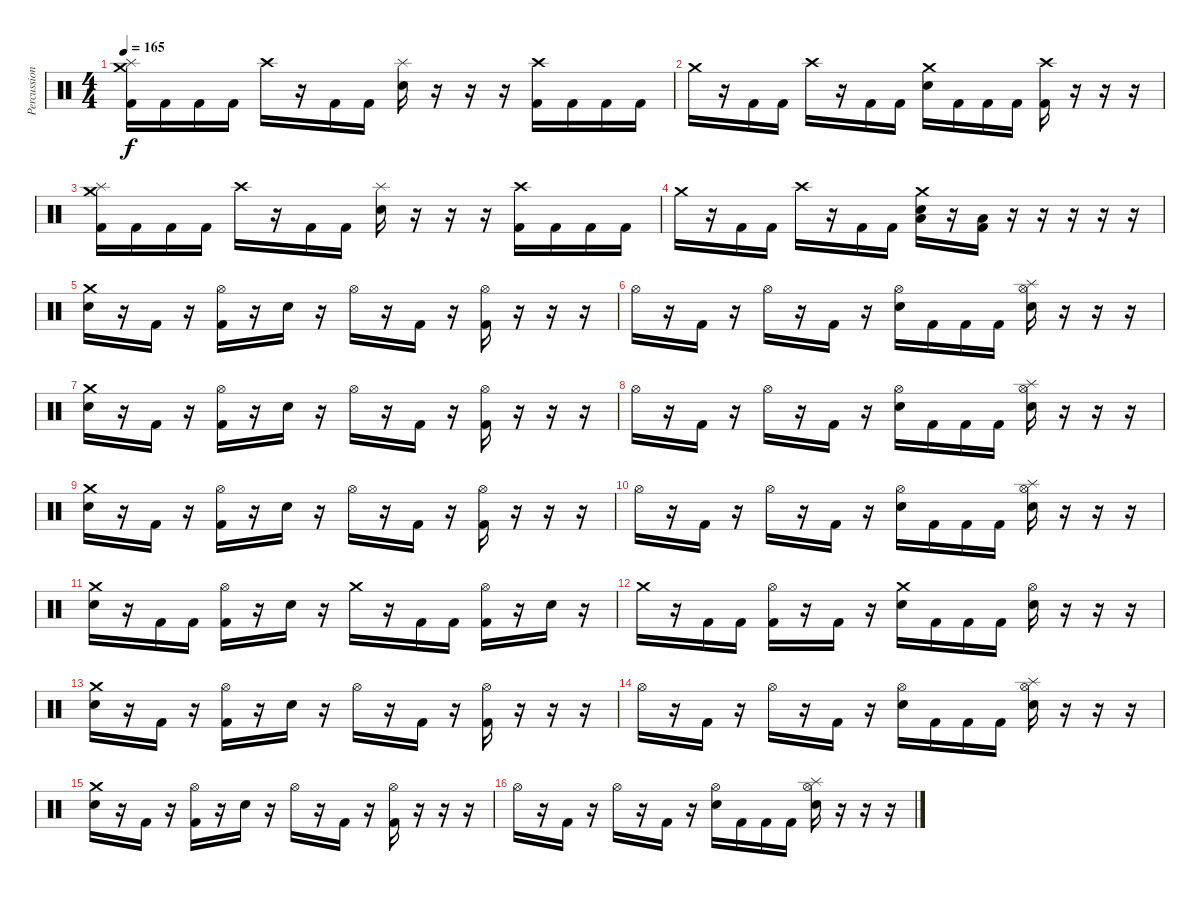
\track ("Percussion" "Percussion") {instrument percussion}
\staff {score}
\articulation defaults
\ts (4 4)
\tempo 165
\clef neutral
\ks c
("Splash (hit)" "Crash medium (hit)" "Kick (hit) 2").16{dy f} "Kick (hit) 2".16 "Kick (hit) 2".16 "Kick (hit) 2".16 "Crash high (hit)".16 r.16 "Kick (hit) 2".16 "Kick (hit) 2".16 ("Splash (hit)" "Electric Snare (hit)").16 r.16 r.16 r.16 ("Crash high (hit)" "Kick (hit) 2").16 "Kick (hit) 2".16 "Kick (hit) 2".16 "Kick (hit) 2".16 |
"Crash medium (hit)".16 r.16 "Kick (hit) 2".16 "Kick (hit) 2".16 "Crash high (hit)".16 r.16 "Kick (hit) 2".16 "Kick (hit) 2".16 ("Crash medium (hit)" "Electric Snare (hit)").16 "Kick (hit) 2".16 "Kick (hit) 2".16 "Kick (hit) 2".16 ("Crash high (hit)" "Kick (hit) 2").16 r.16 r.16 r.16 |
("Splash (hit)" "Crash medium (hit)" "Kick (hit) 2").16 "Kick (hit) 2".16 "Kick (hit) 2".16 "Kick (hit) 2".16 "Crash high (hit)".16 r.16 "Kick (hit) 2".16 "Kick (hit) 2".16 ("Splash (hit)" "Electric Snare (hit)").16 r.16 r.16 r.16 ("Crash high (hit)" "Kick (hit) 2").16 "Kick (hit) 2".16 "Kick (hit) 2".16 "Kick (hit) 2".16 |
"Crash medium (hit)".16 r.16 "Kick (hit) 2".16 "Kick (hit) 2".16 "Crash high (hit)".16 r.16 "Kick (hit) 2".16 "Kick (hit) 2".16 ("Crash medium (hit)" "Electric Snare (hit)" "Low Floor Tom (hit)").16 r.16 ("Low Floor Tom (hit)" "Kick (hit) 2").16 r.16 r.16 r.16 r.16 r.16 |
("Crash medium (hit)" "Electric Snare (hit)").16 r.16 "Kick (hit) 2".16 r.16 ("Hi-Hat (open)" "Kick (hit) 2").16 r.16 "Electric Snare (hit)".16 r.16 "Hi-Hat (open)".16 r.16 "Kick (hit) 2".16 r.16 ("Hi-Hat (open)" "Kick (hit) 2").16 r.16 r.16 r.16 |
"Hi-Hat (open)".16 r.16 "Kick (hit) 2".16 r.16 "Hi-Hat (open)".16 r.16 "Kick (hit) 2".16 r.16 ("Hi-Hat (open)" "Electric Snare (hit)").16 "Kick (hit) 2".16 "Kick (hit) 2".16 "Kick (hit) 2".16 ("Hi-Hat (open)" "Splash (hit)" "Electric Snare (hit)").16 r.16 r.16 r.16 |
("Crash medium (hit)" "Electric Snare (hit)").16 r.16 "Kick (hit) 2".16 r.16 ("Hi-Hat (open)" "Kick (hit) 2").16 r.16 "Electric Snare (hit)".16 r.16 "Hi-Hat (open)".16 r.16 "Kick (hit) 2".16 r.16 ("Hi-Hat (open)" "Kick (hit) 2").16 r.16 r.16 r.16 |
"Hi-Hat (open)".16 r.16 "Kick (hit) 2".16 r.16 "Hi-Hat (open)".16 r.16 "Kick (hit) 2".16 r.16 ("Hi-Hat (open)" "Electric Snare (hit)").16 "Kick (hit) 2".16 "Kick (hit) 2".16 "Kick (hit) 2".16 ("Hi-Hat (open)" "Splash (hit)" "Electric Snare (hit)").16 r.16 r.16 r.16 |
("Crash medium (hit)" "Electric Snare (hit)").16 r.16 "Kick (hit) 2".16 r.16 ("Hi-Hat (open)" "Kick (hit) 2").16 r.16 "Electric Snare (hit)".16 r.16 "Hi-Hat (open)".16 r.16 "Kick (hit) 2".16 r.16 ("Hi-Hat (open)" "Kick (hit) 2").16 r.16 r.16 r.16 |
"Hi-Hat (open)".16 r.16 "Kick (hit) 2".16 r.16 "Hi-Hat (open)".16 r.16 "Kick (hit) 2".16 r.16 ("Hi-Hat (open)" "Electric Snare (hit)").16 "Kick (hit) 2".16 "Kick (hit) 2".16 "Kick (hit) 2".16 ("Hi-Hat (open)" "Splash (hit)" "Electric Snare (hit)").16 r.16 r.16 r.16 |
("Crash medium (hit)" "Electric Snare (hit)").16 r.16 "Kick (hit) 2".16 "Kick (hit) 2".16 ("Hi-Hat (open)" "Kick (hit) 2").16 r.16 "Electric Snare (hit)".16 r.16 "Crash medium (hit)".16 r.16 "Kick (hit) 2".16 "Kick (hit) 2".16 ("Hi-Hat (open)" "Kick (hit) 2").16 r.16 "Electric Snare (hit)".16 r.16 |
"Crash medium (hit)".16 r.16 "Kick (hit) 2".16 "Kick (hit) 2".16 ("Hi-Hat (open)" "Kick (hit) 2").16 r.16 "Kick (hit) 2".16 r.16 ("Crash medium (hit)" "Electric Snare (hit)").16 "Kick (hit) 2".16 "Kick (hit) 2".16 "Kick (hit) 2".16 ("Hi-Hat (open)" "Electric Snare (hit)").16 r.16 r.16 r.16 |
("Crash medium (hit)" "Electric Snare (hit)").16 r.16 "Kick (hit) 2".16 r.16 ("Hi-Hat (open)" "Kick (hit) 2").16 r.16 "Electric Snare (hit)".16 r.16 "Hi-Hat (open)".16 r.16 "Kick (hit) 2".16 r.16 ("Hi-Hat (open)" "Kick (hit) 2").16 r.16 r.16 r.16 |
"Hi-Hat (open)".16 r.16 "Kick (hit) 2".16 r.16 "Hi-Hat (open)".16 r.16 "Kick (hit) 2".16 r.16 ("Hi-Hat (open)" "Electric Snare (hit)").16 "Kick (hit) 2".16 "Kick (hit) 2".16 "Kick (hit) 2".16 ("Hi-Hat (open)" "Splash (hit)" "Electric Snare (hit)").16 r.16 r.16 r.16 |
("Crash medium (hit)" "Electric Snare (hit)").16 r.16 "Kick (hit) 2".16 r.16 ("Hi-Hat (open)" "Kick (hit) 2").16 r.16 "Electric Snare (hit)".16 r.16 "Hi-Hat (open)".16 r.16 "Kick (hit) 2".16 r.16 ("Hi-Hat (open)" "Kick (hit) 2").16 r.16 r.16 r.16 |
"Hi-Hat (open)".16 r.16 "Kick (hit) 2".16 r.16 "Hi-Hat (open)".16 r.16 "Kick (hit) 2".16 r.16 ("Hi-Hat (open)" "Electric Snare (hit)").16 "Kick (hit) 2".16 "Kick (hit) 2".16 "Kick (hit) 2".16 ("Hi-Hat (open)" "Splash (hit)" "Electric Snare (hit)").16 r.16 r.16 r.16
